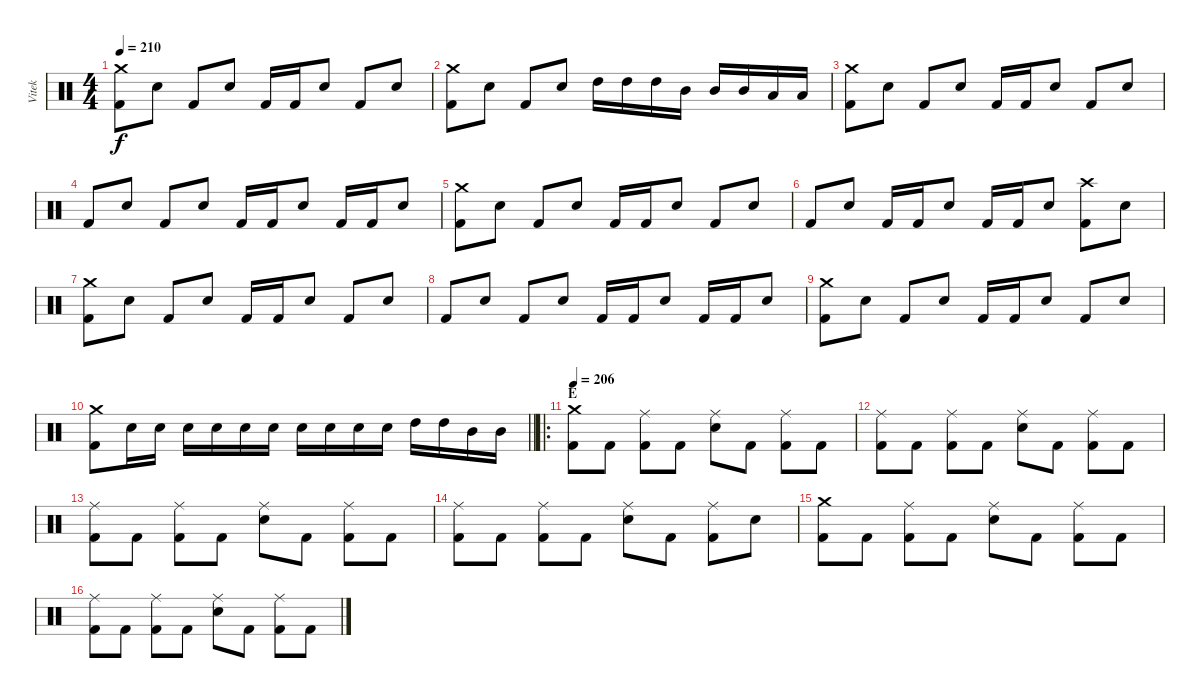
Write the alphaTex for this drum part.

\track ("Vitek" "Vitek") {instrument percussion}
\staff {score}
\articulation defaults
\ts (4 4)
\tempo 210
\clef neutral
\ks c
("Crash medium (hit)" "Kick (hit) 2").8{dy f} "Electric Snare (hit)".8 "Kick (hit) 2".8 "Electric Snare (hit)".8 "Kick (hit) 2".16 "Kick (hit) 2".16 "Electric Snare (hit)".8 "Kick (hit) 2".8 "Electric Snare (hit)".8 |
("Crash medium (hit)" "Kick (hit) 2").8 "Electric Snare (hit)".8 "Kick (hit) 2".8 "Electric Snare (hit)".8 "High Tom (hit)".16 "High Tom (hit)".16 "High Tom (hit)".16 "Mid Tom (hit)".16 "Mid Tom (hit)".16 "Mid Tom (hit)".16 "Low Tom (hit)".16 "Low Tom (hit)".16 |
("Crash medium (hit)" "Kick (hit) 2").8 "Electric Snare (hit)".8 "Kick (hit) 2".8 "Electric Snare (hit)".8 "Kick (hit) 2".16 "Kick (hit) 2".16 "Electric Snare (hit)".8 "Kick (hit) 2".8 "Electric Snare (hit)".8 |
"Kick (hit) 2".8 "Electric Snare (hit)".8 "Kick (hit) 2".8 "Electric Snare (hit)".8 "Kick (hit) 2".16 "Kick (hit) 2".16 "Electric Snare (hit)".8 "Kick (hit) 2".16 "Kick (hit) 2".16 "Electric Snare (hit)".8 |
("Crash medium (hit)" "Kick (hit) 2").8 "Electric Snare (hit)".8 "Kick (hit) 2".8 "Electric Snare (hit)".8 "Kick (hit) 2".16 "Kick (hit) 2".16 "Electric Snare (hit)".8 "Kick (hit) 2".8 "Electric Snare (hit)".8 |
"Kick (hit) 2".8 "Electric Snare (hit)".8 "Kick (hit) 2".16 "Kick (hit) 2".16 "Electric Snare (hit)".8 "Kick (hit) 2".16 "Kick (hit) 2".16 "Electric Snare (hit)".8 ("Crash high (hit)" "Kick (hit) 2").8 "Electric Snare (hit)".8 |
("Crash medium (hit)" "Kick (hit) 2").8 "Electric Snare (hit)".8 "Kick (hit) 2".8 "Electric Snare (hit)".8 "Kick (hit) 2".16 "Kick (hit) 2".16 "Electric Snare (hit)".8 "Kick (hit) 2".8 "Electric Snare (hit)".8 |
"Kick (hit) 2".8 "Electric Snare (hit)".8 "Kick (hit) 2".8 "Electric Snare (hit)".8 "Kick (hit) 2".16 "Kick (hit) 2".16 "Electric Snare (hit)".8 "Kick (hit) 2".16 "Kick (hit) 2".16 "Electric Snare (hit)".8 |
("Crash medium (hit)" "Kick (hit) 2").8 "Electric Snare (hit)".8 "Kick (hit) 2".8 "Electric Snare (hit)".8 "Kick (hit) 2".16 "Kick (hit) 2".16 "Electric Snare (hit)".8 "Kick (hit) 2".8 "Electric Snare (hit)".8 |
\barLineRight lightlight
("Crash medium (hit)" "Kick (hit) 2").8 "Electric Snare (hit)".16 "Electric Snare (hit)".16 "Electric Snare (hit)".16 "Electric Snare (hit)".16 "Electric Snare (hit)".16 "Electric Snare (hit)".16 "Electric Snare (hit)".16 "Electric Snare (hit)".16 "Electric Snare (hit)".16 "Electric Snare (hit)".16 "High Tom (hit)".16 "High Tom (hit)".16 "Mid Tom (hit)".16 "Mid Tom (hit)".16 |
\ro
\section ("" "E")
\tempo 206
("Crash medium (hit)" "Kick (hit) 2").8 "Kick (hit) 2".8 ("Ride (middle)" "Kick (hit) 2").8 "Kick (hit) 2".8 ("Ride (middle)" "Electric Snare (hit)").8 "Kick (hit) 2".8 ("Ride (middle)" "Kick (hit) 2").8 "Kick (hit) 2".8 |
("Ride (middle)" "Kick (hit) 2").8 "Kick (hit) 2".8 ("Ride (middle)" "Kick (hit) 2").8 "Kick (hit) 2".8 ("Ride (middle)" "Electric Snare (hit)").8 "Kick (hit) 2".8 ("Ride (middle)" "Kick (hit) 2").8 "Kick (hit) 2".8 |
("Ride (middle)" "Kick (hit) 2").8 "Kick (hit) 2".8 ("Ride (middle)" "Kick (hit) 2").8 "Kick (hit) 2".8 ("Ride (middle)" "Electric Snare (hit)").8 "Kick (hit) 2".8 ("Ride (middle)" "Kick (hit) 2").8 "Kick (hit) 2".8 |
("Ride (middle)" "Kick (hit) 2").8 "Kick (hit) 2".8 ("Ride (middle)" "Kick (hit) 2").8 "Kick (hit) 2".8 ("Ride (middle)" "Electric Snare (hit)").8 "Kick (hit) 2".8 ("Ride (middle)" "Kick (hit) 2").8 "Electric Snare (hit)".8 |
("Crash medium (hit)" "Kick (hit) 2").8 "Kick (hit) 2".8 ("Ride (middle)" "Kick (hit) 2").8 "Kick (hit) 2".8 ("Ride (middle)" "Electric Snare (hit)").8 "Kick (hit) 2".8 ("Ride (middle)" "Kick (hit) 2").8 "Kick (hit) 2".8 |
("Ride (middle)" "Kick (hit) 2").8 "Kick (hit) 2".8 ("Ride (middle)" "Kick (hit) 2").8 "Kick (hit) 2".8 ("Ride (middle)" "Electric Snare (hit)").8 "Kick (hit) 2".8 ("Ride (middle)" "Kick (hit) 2").8 "Kick (hit) 2".8
